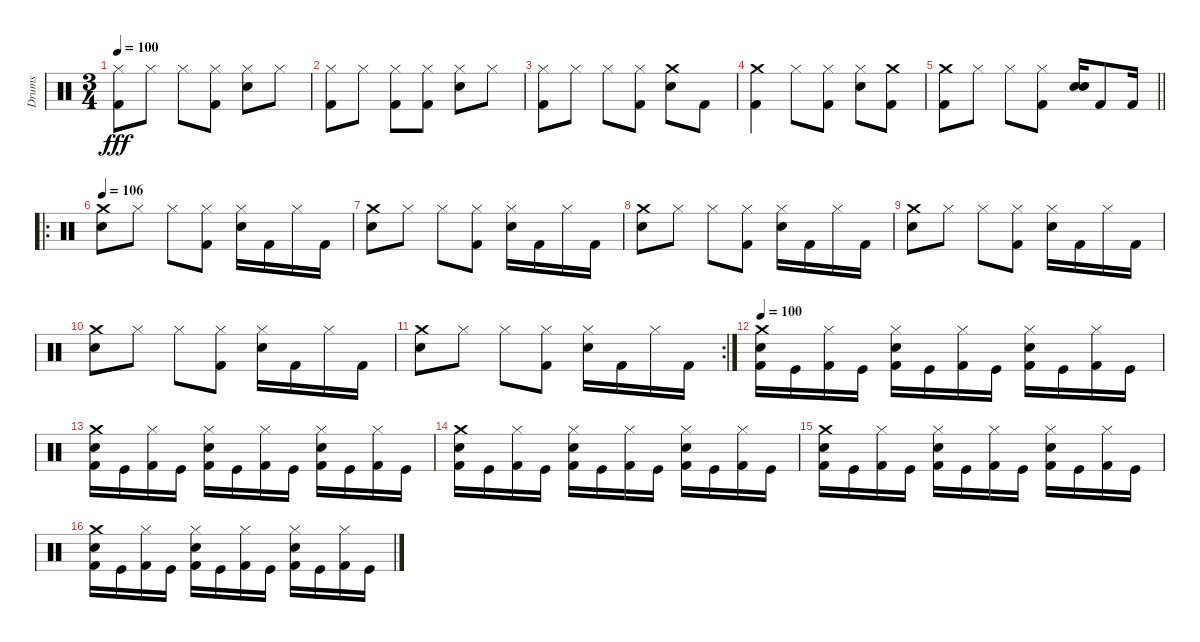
\track ("Drums" "Drums") {instrument percussion}
\staff {score}
\articulation defaults
\ts (3 4)
\tempo 100
\clef neutral
\ks c
("Hi-Hat (closed)" "Kick (hit) 2").8{dy fff} "Hi-Hat (closed)".8 "Hi-Hat (closed)".8 ("Kick (hit) 2" "Hi-Hat (closed)").8 ("Hi-Hat (closed)" "Snare (hit) 2").8 "Hi-Hat (closed)".8 |
("Hi-Hat (closed)" "Kick (hit) 2").8 "Hi-Hat (closed)".8 ("Kick (hit) 2" "Hi-Hat (closed)").8 ("Kick (hit) 2" "Hi-Hat (closed)").8 ("Hi-Hat (closed)" "Snare (hit) 2").8 "Hi-Hat (closed)".8 |
("Kick (hit) 2" "Hi-Hat (closed)").8 "Hi-Hat (closed)".8 "Hi-Hat (closed)".8 ("Kick (hit) 2" "Hi-Hat (closed)").8 ("Snare (hit) 2" "Crash medium (hit)").8 "Kick (hit) 2".8 |
("Kick (hit) 2" "Crash medium (hit)").4 "Hi-Hat (closed)".8 ("Kick (hit) 2" "Hi-Hat (closed)").8 ("Hi-Hat (closed)" "Snare (hit) 2").8 ("Kick (hit) 2" "Crash medium (hit)").8 |
\barLineRight lightlight
("Kick (hit) 2" "Crash medium (hit)").8 "Hi-Hat (closed)".8 "Hi-Hat (closed)".8 ("Kick (hit) 2" "Hi-Hat (closed)").8 ("Snare (hit) 2" "Snare (hit) 2").16 "Kick (hit) 2".8 "Kick (hit) 2".16 |
\ro
\tempo 106
("Snare (hit) 2" "Crash medium (hit)").8 "Hi-Hat (closed)".8 "Hi-Hat (closed)".8 ("Kick (hit) 2" "Hi-Hat (closed)").8 ("Snare (hit) 2" "Hi-Hat (closed)").16 "Kick (hit) 2".16 "Hi-Hat (closed)".16 "Kick (hit) 2".16 |
("Snare (hit) 2" "Crash medium (hit)").8 "Hi-Hat (closed)".8 "Hi-Hat (closed)".8 ("Kick (hit) 2" "Hi-Hat (closed)").8 ("Snare (hit) 2" "Hi-Hat (closed)").16 "Kick (hit) 2".16 "Hi-Hat (closed)".16 "Kick (hit) 2".16 |
("Snare (hit) 2" "Crash medium (hit)").8 "Hi-Hat (closed)".8 "Hi-Hat (closed)".8 ("Kick (hit) 2" "Hi-Hat (closed)").8 ("Snare (hit) 2" "Hi-Hat (closed)").16 "Kick (hit) 2".16 "Hi-Hat (closed)".16 "Kick (hit) 2".16 |
("Snare (hit) 2" "Crash medium (hit)").8 "Hi-Hat (closed)".8 "Hi-Hat (closed)".8 ("Kick (hit) 2" "Hi-Hat (closed)").8 ("Snare (hit) 2" "Hi-Hat (closed)").16 "Kick (hit) 2".16 "Hi-Hat (closed)".16 "Kick (hit) 2".16 |
("Snare (hit) 2" "Crash medium (hit)").8 "Hi-Hat (closed)".8 "Hi-Hat (closed)".8 ("Kick (hit) 2" "Hi-Hat (closed)").8 ("Snare (hit) 2" "Hi-Hat (closed)").16 "Kick (hit) 2".16 "Hi-Hat (closed)".16 "Kick (hit) 2".16 |
\rc 2
("Snare (hit) 2" "Crash medium (hit)").8 "Hi-Hat (closed)".8 "Hi-Hat (closed)".8 ("Kick (hit) 2" "Hi-Hat (closed)").8 ("Snare (hit) 2" "Hi-Hat (closed)").16 "Kick (hit) 2".16 "Hi-Hat (closed)".16 "Kick (hit) 2".16 |
\tempo 100
("Kick (hit) 2" "Snare (hit) 2" "Crash medium (hit)").16 "Kick (hit)".16 ("Kick (hit) 2" "Hi-Hat (closed)").16 "Kick (hit)".16 ("Kick (hit) 2" "Snare (hit) 2" "Hi-Hat (closed)").16 "Kick (hit)".16 ("Kick (hit) 2" "Hi-Hat (closed)").16 "Kick (hit)".16 ("Kick (hit) 2" "Snare (hit) 2" "Hi-Hat (closed)").16 "Kick (hit)".16 ("Kick (hit) 2" "Hi-Hat (closed)").16 "Kick (hit)".16 |
("Kick (hit) 2" "Snare (hit) 2" "Crash medium (hit)").16 "Kick (hit)".16 ("Kick (hit) 2" "Hi-Hat (closed)").16 "Kick (hit)".16 ("Kick (hit) 2" "Snare (hit) 2" "Hi-Hat (closed)").16 "Kick (hit)".16 ("Kick (hit) 2" "Hi-Hat (closed)").16 "Kick (hit)".16 ("Kick (hit) 2" "Snare (hit) 2" "Hi-Hat (closed)").16 "Kick (hit)".16 ("Kick (hit) 2" "Hi-Hat (closed)").16 "Kick (hit)".16 |
("Kick (hit) 2" "Snare (hit) 2" "Crash medium (hit)").16 "Kick (hit)".16 ("Kick (hit) 2" "Hi-Hat (closed)").16 "Kick (hit)".16 ("Kick (hit) 2" "Snare (hit) 2" "Hi-Hat (closed)").16 "Kick (hit)".16 ("Kick (hit) 2" "Hi-Hat (closed)").16 "Kick (hit)".16 ("Kick (hit) 2" "Snare (hit) 2" "Hi-Hat (closed)").16 "Kick (hit)".16 ("Kick (hit) 2" "Hi-Hat (closed)").16 "Kick (hit)".16 |
("Kick (hit) 2" "Snare (hit) 2" "Crash medium (hit)").16 "Kick (hit)".16 ("Kick (hit) 2" "Hi-Hat (closed)").16 "Kick (hit)".16 ("Kick (hit) 2" "Snare (hit) 2" "Hi-Hat (closed)").16 "Kick (hit)".16 ("Kick (hit) 2" "Hi-Hat (closed)").16 "Kick (hit)".16 ("Kick (hit) 2" "Snare (hit) 2" "Hi-Hat (closed)").16 "Kick (hit)".16 ("Kick (hit) 2" "Hi-Hat (closed)").16 "Kick (hit)".16 |
("Kick (hit) 2" "Snare (hit) 2" "Crash medium (hit)").16 "Kick (hit)".16 ("Kick (hit) 2" "Hi-Hat (closed)").16 "Kick (hit)".16 ("Kick (hit) 2" "Snare (hit) 2" "Hi-Hat (closed)").16 "Kick (hit)".16 ("Kick (hit) 2" "Hi-Hat (closed)").16 "Kick (hit)".16 ("Kick (hit) 2" "Snare (hit) 2" "Hi-Hat (closed)").16 "Kick (hit)".16 ("Kick (hit) 2" "Hi-Hat (closed)").16 "Kick (hit)".16
